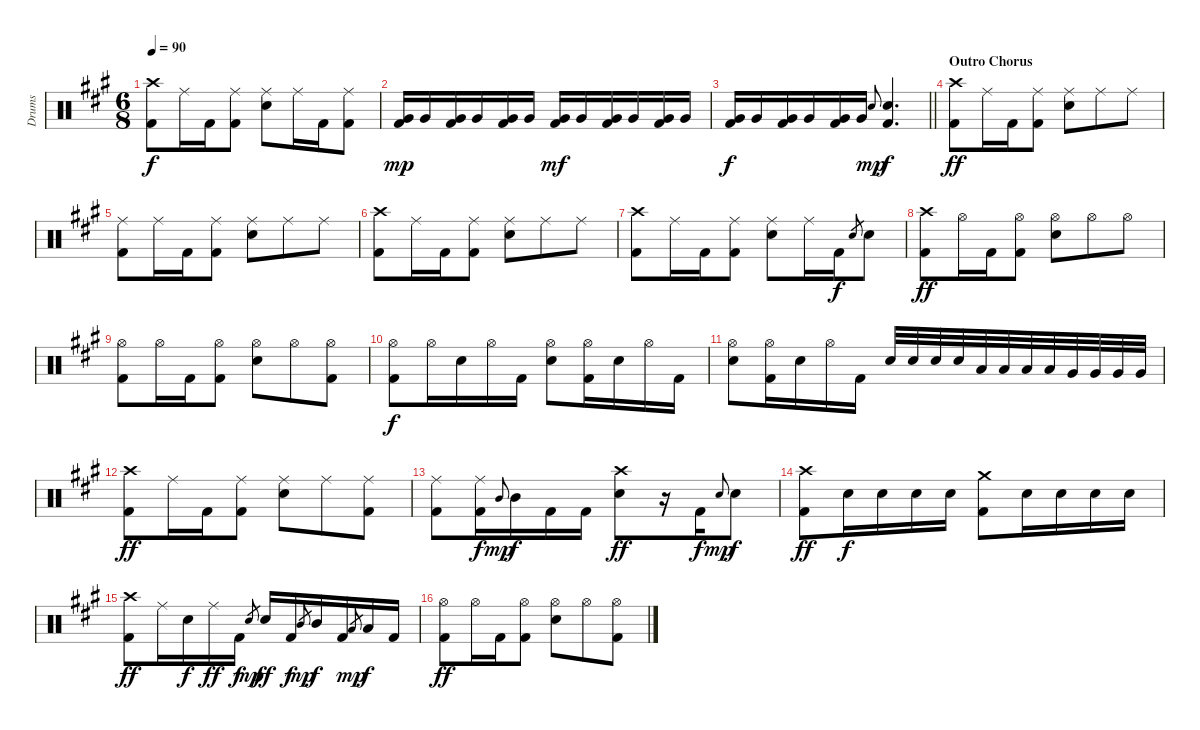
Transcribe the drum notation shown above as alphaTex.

\track ("Drums" "Drums") {instrument percussion}
\staff {score}
\articulation defaults
\ts (6 8)
\tempo 90
\clef neutral
\ks a
("Crash high (hit)" "Kick (hit) 2").8{dy f} "Ride (middle)".16 "Kick (hit) 2".16 ("Ride (middle)" "Kick (hit) 2").8 ("Ride (middle)" "Snare (hit) 2").8 "Ride (middle)".16 "Kick (hit) 2".16 ("Ride (middle)" "Kick (hit) 2").8 |
("Very Low Tom (hit)" "Kick (hit) 2").16{dy mp} "Very Low Tom (hit)".16 ("Very Low Tom (hit)" "Kick (hit) 2").16 "Very Low Tom (hit)".16 ("Very Low Tom (hit)" "Kick (hit) 2").16 "Very Low Tom (hit)".16 ("Very Low Tom (hit)" "Kick (hit) 2").16{dy mf} "Very Low Tom (hit)".16 ("Very Low Tom (hit)" "Kick (hit) 2").16 "Very Low Tom (hit)".16 ("Very Low Tom (hit)" "Kick (hit) 2").16 "Very Low Tom (hit)".16 |
\barLineRight lightlight
("Very Low Tom (hit)" "Kick (hit) 2").16{dy f} "Very Low Tom (hit)".16 ("Very Low Tom (hit)" "Kick (hit) 2").16 "Very Low Tom (hit)".16 ("Very Low Tom (hit)" "Kick (hit) 2").16 "Very Low Tom (hit)".16 "Snare (hit) 2".8{gr onbeat dy mp} ("Snare (hit) 2" "Kick (hit) 2").4{d dy f} |
\section ("" "Outro Chorus")
("Crash high (hit)" "Kick (hit) 2").8{dy ff} "Ride (middle)".16 "Kick (hit) 2".16 ("Ride (middle)" "Kick (hit) 2").8 ("Ride (middle)" "Snare (hit) 2").8 "Ride (middle)".8 "Ride (middle)".8 |
("Ride (middle)" "Kick (hit) 2").8 "Ride (middle)".16 "Kick (hit) 2".16 ("Ride (middle)" "Kick (hit) 2").8 ("Ride (middle)" "Snare (hit) 2").8 "Ride (middle)".8 "Ride (middle)".8 |
("Crash high (hit)" "Kick (hit) 2").8 "Ride (middle)".16 "Kick (hit) 2".16 ("Ride (middle)" "Kick (hit) 2").8 ("Ride (middle)" "Snare (hit) 2").8 "Ride (middle)".8 "Ride (middle)".8 |
("Crash high (hit)" "Kick (hit) 2").8 "Ride (middle)".16 "Kick (hit) 2".16 ("Ride (middle)" "Kick (hit) 2").8 ("Ride (middle)" "Snare (hit) 2").8 "Ride (middle)".16 "Kick (hit) 2".16{dy f} "Snare (hit) 2".8{gr} "Snare (hit) 2".8 |
("Crash high (hit)" "Kick (hit) 2").8{dy ff} "Hi-Hat (open)".16 "Kick (hit) 2".16 ("Hi-Hat (open)" "Kick (hit) 2").8 ("Hi-Hat (open)" "Snare (hit) 2").8 "Hi-Hat (open)".8 "Hi-Hat (open)".8 |
("Hi-Hat (open)" "Kick (hit) 2").8 "Hi-Hat (open)".16 "Kick (hit) 2".16 ("Hi-Hat (open)" "Kick (hit) 2").8 ("Hi-Hat (open)" "Snare (hit) 2").8 "Hi-Hat (open)".8 ("Hi-Hat (open)" "Kick (hit) 2").8 |
("Hi-Hat (open)" "Kick (hit) 2").8{dy f} "Hi-Hat (open)".16 "Snare (hit) 2".16 "Hi-Hat (open)".16 "Kick (hit) 2".16 ("Hi-Hat (open)" "Snare (hit) 2").8 ("Hi-Hat (open)" "Kick (hit) 2").16 "Snare (hit) 2".16 "Hi-Hat (open)".16 "Kick (hit) 2".16 |
("Hi-Hat (open)" "Snare (hit) 2").8 ("Hi-Hat (open)" "Kick (hit) 2").16 "Snare (hit) 2".16 "Hi-Hat (open)".16 "Kick (hit) 2".16 "Snare (hit) 2".32 "Snare (hit) 2".32 "Snare (hit) 2".32 "Snare (hit) 2".32 "Low Tom (hit)".32 "Low Tom (hit)".32 "Low Tom (hit)".32 "Low Tom (hit)".32 "Very Low Tom (hit)".32 "Very Low Tom (hit)".32 "Very Low Tom (hit)".32 "Very Low Tom (hit)".32 |
("Crash high (hit)" "Kick (hit) 2").8{dy ff} "Ride (middle)".16 "Kick (hit) 2".16 ("Ride (middle)" "Kick (hit) 2").8 ("Ride (middle)" "Snare (hit) 2").8 "Ride (middle)".8 ("Ride (middle)" "Kick (hit) 2").8 |
("Ride (middle)" "Kick (hit) 2").8 ("Ride (middle)" "Kick (hit) 2").16{dy f} "Mid Tom (hit)".8{gr onbeat dy mp} "Mid Tom (hit)".16{dy f} "Kick (hit) 2".16 "Kick (hit) 2".16 ("Crash high (hit)" "Snare (hit) 2").8{dy ff} r.16 "Kick (hit) 2".16{dy f} "Snare (hit) 2".8{gr onbeat dy mp} "Snare (hit) 2".8{dy f} |
("Crash high (hit)" "Kick (hit) 2").8{dy ff} "Snare (hit) 2".16{dy f} "Snare (hit) 2".16 "Snare (hit) 2".16 "Snare (hit) 2".16 ("Crash medium (hit)" "Kick (hit) 2").8 "Snare (hit) 2".16 "Snare (hit) 2".16 "Snare (hit) 2".16 "Snare (hit) 2".16 |
("Crash high (hit)" "Kick (hit) 2").8{dy ff} "Ride (middle)".16 "Snare (hit) 2".16{dy f} "Ride (middle)".16{dy ff} "Kick (hit) 2".16{dy f} "Snare (hit) 2".8{gr dy mp} "Snare (hit) 2".16{dy ff} "Kick (hit) 2".16{dy f} "Mid Tom (hit)".8{gr dy mp} "Mid Tom (hit)".16{dy f} "Kick (hit) 2".16 "Low Tom (hit)".8{gr dy mp} "Low Tom (hit)".16{dy f} "Kick (hit) 2".16 |
("Hi-Hat (open)" "Kick (hit) 2").8{dy ff} "Hi-Hat (open)".16 "Kick (hit) 2".16 ("Hi-Hat (open)" "Kick (hit) 2").8 ("Hi-Hat (open)" "Snare (hit) 2").8 "Hi-Hat (open)".8 ("Hi-Hat (open)" "Kick (hit) 2").8
